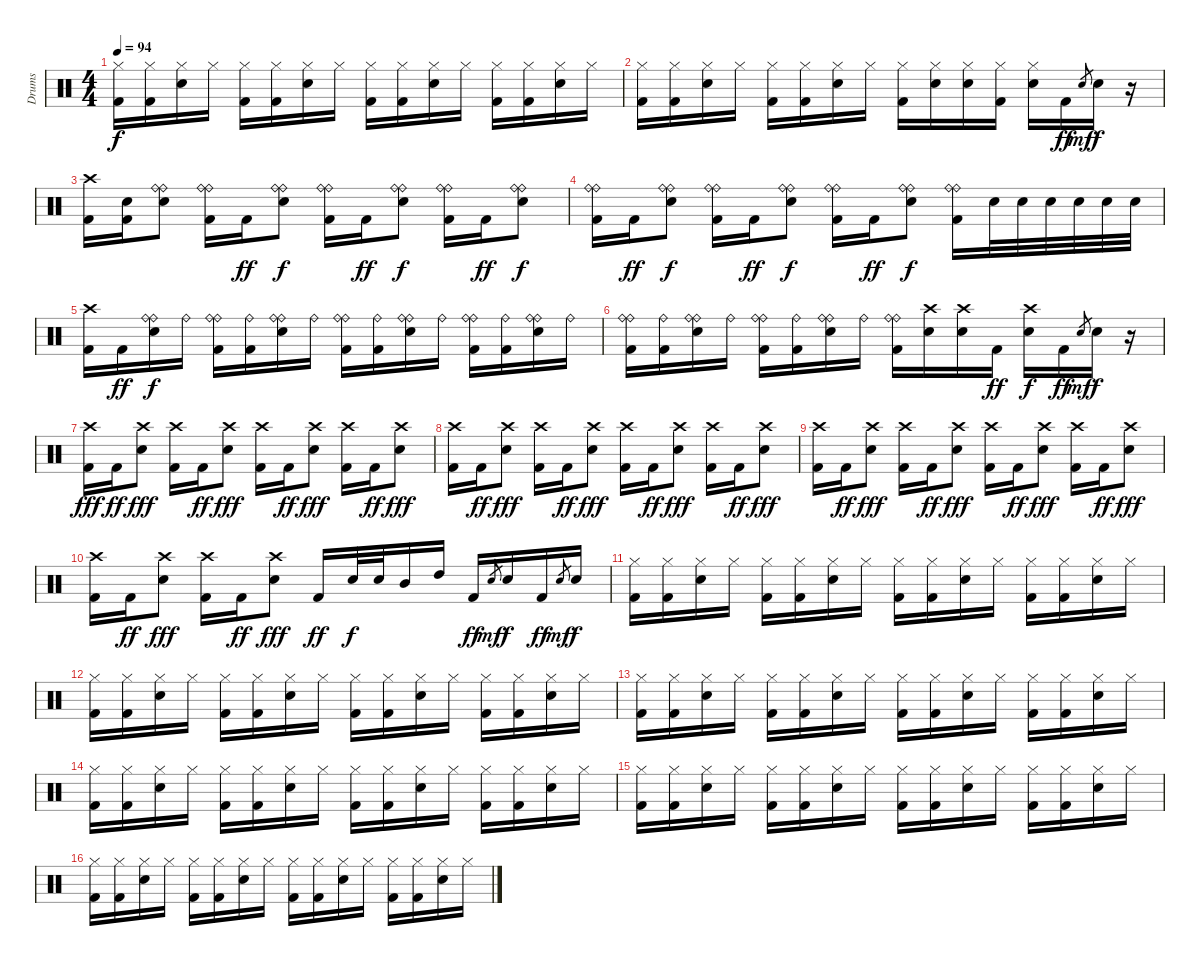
\track ("Drums" "Drums") {instrument percussion}
\staff {score}
\articulation defaults
\ts (4 4)
\tempo 94
\clef neutral
\ks c
("Hi-Hat (closed)" "Kick (hit) 2").16{dy f} ("Hi-Hat (closed)" "Kick (hit) 2").16 ("Hi-Hat (closed)" "Snare (hit) 2").16 "Hi-Hat (closed)".16 ("Hi-Hat (closed)" "Kick (hit) 2").16 ("Hi-Hat (closed)" "Kick (hit) 2").16 ("Hi-Hat (closed)" "Snare (hit) 2").16 "Hi-Hat (closed)".16 ("Hi-Hat (closed)" "Kick (hit) 2").16 ("Hi-Hat (closed)" "Kick (hit) 2").16 ("Hi-Hat (closed)" "Snare (hit) 2").16 "Hi-Hat (closed)".16 ("Hi-Hat (closed)" "Kick (hit) 2").16 ("Hi-Hat (closed)" "Kick (hit) 2").16 ("Hi-Hat (closed)" "Snare (hit) 2").16 "Hi-Hat (closed)".16 |
("Hi-Hat (closed)" "Kick (hit) 2").16 ("Hi-Hat (closed)" "Kick (hit) 2").16 ("Hi-Hat (closed)" "Snare (hit) 2").16 "Hi-Hat (closed)".16 ("Hi-Hat (closed)" "Kick (hit) 2").16 ("Hi-Hat (closed)" "Kick (hit) 2").16 ("Hi-Hat (closed)" "Snare (hit) 2").16 "Hi-Hat (closed)".16 ("Hi-Hat (closed)" "Kick (hit) 2").16 ("Hi-Hat (closed)" "Snare (hit) 2").16 ("Hi-Hat (closed)" "Snare (hit) 2").16 ("Hi-Hat (closed)" "Kick (hit) 2").16 ("Hi-Hat (closed)" "Snare (hit) 2").16 "Kick (hit) 2".16{dy ff} "Snare (hit)".8{gr dy mf} "Snare (hit) 2".16{dy f} r.16 |
("Crash high (hit)" "Kick (hit) 2").16 ("Snare (hit)" "Kick (hit) 2").16 ("Ride (bell)" "Ride (bell)" "Snare (hit) 2").8 ("Ride (bell)" "Ride (bell)" "Kick (hit) 2").16 "Kick (hit) 2".16{dy ff} ("Ride (bell)" "Ride (bell)" "Snare (hit) 2").8{dy f} ("Ride (bell)" "Ride (bell)" "Kick (hit) 2").16 "Kick (hit) 2".16{dy ff} ("Ride (bell)" "Ride (bell)" "Snare (hit) 2").8{dy f} ("Ride (bell)" "Ride (bell)" "Kick (hit) 2").16 "Kick (hit) 2".16{dy ff} ("Ride (bell)" "Ride (bell)" "Snare (hit) 2").8{dy f} |
("Ride (bell)" "Ride (bell)" "Kick (hit) 2").16 "Kick (hit) 2".16{dy ff} ("Ride (bell)" "Ride (bell)" "Snare (hit) 2").8{dy f} ("Ride (bell)" "Ride (bell)" "Kick (hit) 2").16 "Kick (hit) 2".16{dy ff} ("Ride (bell)" "Ride (bell)" "Snare (hit) 2").8{dy f} ("Ride (bell)" "Ride (bell)" "Kick (hit) 2").16 "Kick (hit) 2".16{dy ff} ("Ride (bell)" "Ride (bell)" "Snare (hit) 2").8{dy f} ("Ride (bell)" "Ride (bell)" "Kick (hit) 2").16 "Snare (hit) 2".32 "Snare (hit) 2".32 "Snare (hit) 2".32 "Snare (hit) 2".32 "Snare (hit) 2".32 "Snare (hit) 2".32 |
("Crash high (hit)" "Kick (hit) 2").16 "Kick (hit) 2".16{dy ff} ("Ride (bell)" "Ride (bell)" "Snare (hit) 2").16{dy f} "Ride (bell)".16 ("Ride (bell)" "Ride (bell)" "Kick (hit) 2").16 ("Ride (bell)" "Kick (hit) 2").16 ("Ride (bell)" "Ride (bell)" "Snare (hit) 2").16 "Ride (bell)".16 ("Ride (bell)" "Ride (bell)" "Kick (hit) 2").16 ("Ride (bell)" "Kick (hit) 2").16 ("Ride (bell)" "Ride (bell)" "Snare (hit) 2").16 "Ride (bell)".16 ("Ride (bell)" "Ride (bell)" "Kick (hit) 2").16 ("Ride (bell)" "Kick (hit) 2").16 ("Ride (bell)" "Ride (bell)" "Snare (hit) 2").16 "Ride (bell)".16 |
("Ride (bell)" "Ride (bell)" "Kick (hit) 2").16 ("Ride (bell)" "Kick (hit) 2").16 ("Ride (bell)" "Ride (bell)" "Snare (hit) 2").16 "Ride (bell)".16 ("Ride (bell)" "Ride (bell)" "Kick (hit) 2").16 ("Ride (bell)" "Kick (hit) 2").16 ("Ride (bell)" "Ride (bell)" "Snare (hit) 2").16 "Ride (bell)".16 ("Ride (bell)" "Ride (bell)" "Kick (hit) 2").16 ("Crash high (hit)" "Snare (hit) 2").16 ("Crash high (hit)" "Snare (hit) 2").16 "Kick (hit) 2".16{dy ff} ("Crash high (hit)" "Snare (hit) 2").16{dy f} "Kick (hit) 2".16{dy ff} "Snare (hit)".8{gr dy mf} "Snare (hit) 2".16{dy f} r.16 |
("Crash high (hit)" "Kick (hit) 2").16{dy fff} "Kick (hit) 2".16{dy ff} ("Crash high (hit)" "Snare (hit) 2").8{dy fff} ("Crash high (hit)" "Kick (hit) 2").16 "Kick (hit) 2".16{dy ff} ("Crash high (hit)" "Snare (hit) 2").8{dy fff} ("Crash high (hit)" "Kick (hit) 2").16 "Kick (hit) 2".16{dy ff} ("Crash high (hit)" "Snare (hit) 2").8{dy fff} ("Crash high (hit)" "Kick (hit) 2").16 "Kick (hit) 2".16{dy ff} ("Crash high (hit)" "Snare (hit) 2").8{dy fff} |
("Crash high (hit)" "Kick (hit) 2").16 "Kick (hit) 2".16{dy ff} ("Crash high (hit)" "Snare (hit) 2").8{dy fff} ("Crash high (hit)" "Kick (hit) 2").16 "Kick (hit) 2".16{dy ff} ("Crash high (hit)" "Snare (hit) 2").8{dy fff} ("Crash high (hit)" "Kick (hit) 2").16 "Kick (hit) 2".16{dy ff} ("Crash high (hit)" "Snare (hit) 2").8{dy fff} ("Crash high (hit)" "Kick (hit) 2").16 "Kick (hit) 2".16{dy ff} ("Crash high (hit)" "Snare (hit) 2").8{dy fff} |
("Crash high (hit)" "Kick (hit) 2").16 "Kick (hit) 2".16{dy ff} ("Crash high (hit)" "Snare (hit) 2").8{dy fff} ("Crash high (hit)" "Kick (hit) 2").16 "Kick (hit) 2".16{dy ff} ("Crash high (hit)" "Snare (hit) 2").8{dy fff} ("Crash high (hit)" "Kick (hit) 2").16 "Kick (hit) 2".16{dy ff} ("Crash high (hit)" "Snare (hit) 2").8{dy fff} ("Crash high (hit)" "Kick (hit) 2").16 "Kick (hit) 2".16{dy ff} ("Crash high (hit)" "Snare (hit) 2").8{dy fff} |
("Crash high (hit)" "Kick (hit) 2").16 "Kick (hit) 2".16{dy ff} ("Crash high (hit)" "Snare (hit) 2").8{dy fff} ("Crash high (hit)" "Kick (hit) 2").16 "Kick (hit) 2".16{dy ff} ("Crash high (hit)" "Snare (hit) 2").8{dy fff} "Kick (hit) 2".16{dy ff} "Snare (hit) 2".32{dy f} "Snare (hit) 2".32 "Mid Tom (hit)".16 "High Tom (hit)".16 "Kick (hit) 2".16{dy ff} "Snare (hit)".8{gr dy mf} "Snare (hit) 2".16{dy f} "Kick (hit) 2".16{dy ff} "Snare (hit)".8{gr dy mf} "Snare (hit) 2".16{dy f} |
("Hi-Hat (closed)" "Kick (hit) 2").16 ("Hi-Hat (closed)" "Kick (hit) 2").16 ("Hi-Hat (closed)" "Snare (hit) 2").16 "Hi-Hat (closed)".16 ("Hi-Hat (closed)" "Kick (hit) 2").16 ("Hi-Hat (closed)" "Kick (hit) 2").16 ("Hi-Hat (closed)" "Snare (hit) 2").16 "Hi-Hat (closed)".16 ("Hi-Hat (closed)" "Kick (hit) 2").16 ("Hi-Hat (closed)" "Kick (hit) 2").16 ("Hi-Hat (closed)" "Snare (hit) 2").16 "Hi-Hat (closed)".16 ("Hi-Hat (closed)" "Kick (hit) 2").16 ("Hi-Hat (closed)" "Kick (hit) 2").16 ("Hi-Hat (closed)" "Snare (hit) 2").16 "Hi-Hat (closed)".16 |
("Hi-Hat (closed)" "Kick (hit) 2").16 ("Hi-Hat (closed)" "Kick (hit) 2").16 ("Hi-Hat (closed)" "Snare (hit) 2").16 "Hi-Hat (closed)".16 ("Hi-Hat (closed)" "Kick (hit) 2").16 ("Hi-Hat (closed)" "Kick (hit) 2").16 ("Hi-Hat (closed)" "Snare (hit) 2").16 "Hi-Hat (closed)".16 ("Hi-Hat (closed)" "Kick (hit) 2").16 ("Hi-Hat (closed)" "Kick (hit) 2").16 ("Hi-Hat (closed)" "Snare (hit) 2").16 "Hi-Hat (closed)".16 ("Hi-Hat (closed)" "Kick (hit) 2").16 ("Hi-Hat (closed)" "Kick (hit) 2").16 ("Hi-Hat (closed)" "Snare (hit) 2").16 "Hi-Hat (closed)".16 |
("Hi-Hat (closed)" "Kick (hit) 2").16 ("Hi-Hat (closed)" "Kick (hit) 2").16 ("Hi-Hat (closed)" "Snare (hit) 2").16 "Hi-Hat (closed)".16 ("Hi-Hat (closed)" "Kick (hit) 2").16 ("Hi-Hat (closed)" "Kick (hit) 2").16 ("Hi-Hat (closed)" "Snare (hit) 2").16 "Hi-Hat (closed)".16 ("Hi-Hat (closed)" "Kick (hit) 2").16 ("Hi-Hat (closed)" "Kick (hit) 2").16 ("Hi-Hat (closed)" "Snare (hit) 2").16 "Hi-Hat (closed)".16 ("Hi-Hat (closed)" "Kick (hit) 2").16 ("Hi-Hat (closed)" "Kick (hit) 2").16 ("Hi-Hat (closed)" "Snare (hit) 2").16 "Hi-Hat (closed)".16 |
("Hi-Hat (closed)" "Kick (hit) 2").16 ("Hi-Hat (closed)" "Kick (hit) 2").16 ("Hi-Hat (closed)" "Snare (hit) 2").16 "Hi-Hat (closed)".16 ("Hi-Hat (closed)" "Kick (hit) 2").16 ("Hi-Hat (closed)" "Kick (hit) 2").16 ("Hi-Hat (closed)" "Snare (hit) 2").16 "Hi-Hat (closed)".16 ("Hi-Hat (closed)" "Kick (hit) 2").16 ("Hi-Hat (closed)" "Kick (hit) 2").16 ("Hi-Hat (closed)" "Snare (hit) 2").16 "Hi-Hat (closed)".16 ("Hi-Hat (closed)" "Kick (hit) 2").16 ("Hi-Hat (closed)" "Kick (hit) 2").16 ("Hi-Hat (closed)" "Snare (hit) 2").16 "Hi-Hat (closed)".16 |
("Hi-Hat (closed)" "Kick (hit) 2").16 ("Hi-Hat (closed)" "Kick (hit) 2").16 ("Hi-Hat (closed)" "Snare (hit) 2").16 "Hi-Hat (closed)".16 ("Hi-Hat (closed)" "Kick (hit) 2").16 ("Hi-Hat (closed)" "Kick (hit) 2").16 ("Hi-Hat (closed)" "Snare (hit) 2").16 "Hi-Hat (closed)".16 ("Hi-Hat (closed)" "Kick (hit) 2").16 ("Hi-Hat (closed)" "Kick (hit) 2").16 ("Hi-Hat (closed)" "Snare (hit) 2").16 "Hi-Hat (closed)".16 ("Hi-Hat (closed)" "Kick (hit) 2").16 ("Hi-Hat (closed)" "Kick (hit) 2").16 ("Hi-Hat (closed)" "Snare (hit) 2").16 "Hi-Hat (closed)".16 |
("Hi-Hat (closed)" "Kick (hit) 2").16 ("Hi-Hat (closed)" "Kick (hit) 2").16 ("Hi-Hat (closed)" "Snare (hit) 2").16 "Hi-Hat (closed)".16 ("Hi-Hat (closed)" "Kick (hit) 2").16 ("Hi-Hat (closed)" "Kick (hit) 2").16 ("Hi-Hat (closed)" "Snare (hit) 2").16 "Hi-Hat (closed)".16 ("Hi-Hat (closed)" "Kick (hit) 2").16 ("Hi-Hat (closed)" "Kick (hit) 2").16 ("Hi-Hat (closed)" "Snare (hit) 2").16 "Hi-Hat (closed)".16 ("Hi-Hat (closed)" "Kick (hit) 2").16 ("Hi-Hat (closed)" "Kick (hit) 2").16 ("Hi-Hat (closed)" "Snare (hit) 2").16 "Hi-Hat (closed)".16
